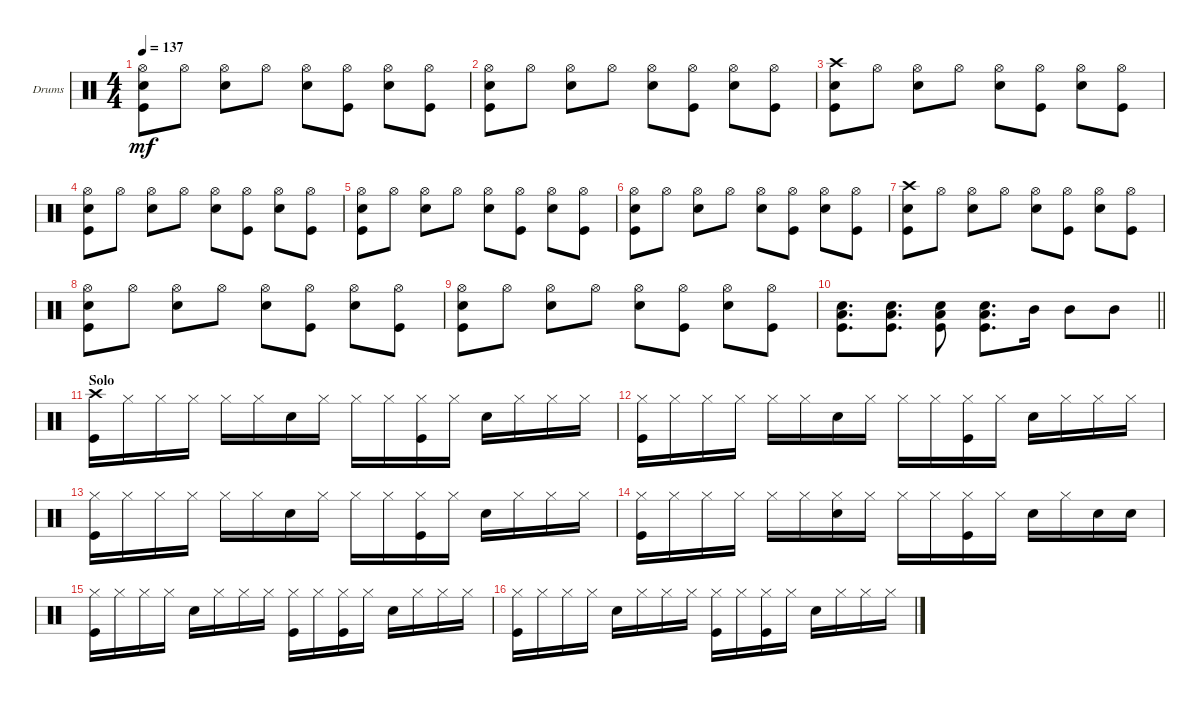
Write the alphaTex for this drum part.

\bracketExtendMode groupsimilarinstruments
\firstSystemTrackNameOrientation horizontal
\otherSystemsTrackNameOrientation horizontal
\track ("Fabrizio" "Drums") {instrument percussion}
\staff {score}
\articulation defaults
\ts (4 4)
\tempo 137
\clef neutral
\scale
0.333333
\ks c
("Hi-Hat (open)" "Snare (hit) 2" "Kick (hit)").8{dy mf} "Hi-Hat (open)".8 ("Hi-Hat (open)" "Snare (hit) 2").8 "Hi-Hat (open)".8 ("Hi-Hat (open)" "Snare (hit) 2").8 ("Hi-Hat (open)" "Kick (hit)").8 ("Hi-Hat (open)" "Snare (hit) 2").8 ("Hi-Hat (open)" "Kick (hit)").8 |
\scale
0.333333 ("Hi-Hat (open)" "Snare (hit) 2" "Kick (hit)").8 "Hi-Hat (open)".8 ("Hi-Hat (open)" "Snare (hit) 2").8 "Hi-Hat (open)".8 ("Hi-Hat (open)" "Snare (hit) 2").8 ("Hi-Hat (open)" "Kick (hit)").8 ("Hi-Hat (open)" "Snare (hit) 2").8 ("Hi-Hat (open)" "Kick (hit)").8 |
\scale
0.333333 ("Crash high (hit)" "Kick (hit)" "Snare (hit) 2").8 "Hi-Hat (open)".8 ("Hi-Hat (open)" "Snare (hit) 2").8 "Hi-Hat (open)".8 ("Hi-Hat (open)" "Snare (hit) 2").8 ("Hi-Hat (open)" "Kick (hit)").8 ("Hi-Hat (open)" "Snare (hit) 2").8 ("Hi-Hat (open)" "Kick (hit)").8 |
\scale
0.333333 ("Hi-Hat (open)" "Snare (hit) 2" "Kick (hit)").8 "Hi-Hat (open)".8 ("Hi-Hat (open)" "Snare (hit) 2").8 "Hi-Hat (open)".8 ("Hi-Hat (open)" "Snare (hit) 2").8 ("Hi-Hat (open)" "Kick (hit)").8 ("Hi-Hat (open)" "Snare (hit) 2").8 ("Hi-Hat (open)" "Kick (hit)").8 |
\scale
0.333333 ("Hi-Hat (open)" "Snare (hit) 2" "Kick (hit)").8 "Hi-Hat (open)".8 ("Hi-Hat (open)" "Snare (hit) 2").8 "Hi-Hat (open)".8 ("Hi-Hat (open)" "Snare (hit) 2").8 ("Hi-Hat (open)" "Kick (hit)").8 ("Hi-Hat (open)" "Snare (hit) 2").8 ("Hi-Hat (open)" "Kick (hit)").8 |
\scale
0.333333 ("Hi-Hat (open)" "Snare (hit) 2" "Kick (hit)").8 "Hi-Hat (open)".8 ("Hi-Hat (open)" "Snare (hit) 2").8 "Hi-Hat (open)".8 ("Hi-Hat (open)" "Snare (hit) 2").8 ("Hi-Hat (open)" "Kick (hit)").8 ("Hi-Hat (open)" "Snare (hit) 2").8 ("Hi-Hat (open)" "Kick (hit)").8 |
\scale
0.333333 ("Crash high (hit)" "Kick (hit)" "Snare (hit) 2").8 "Hi-Hat (open)".8 ("Hi-Hat (open)" "Snare (hit) 2").8 "Hi-Hat (open)".8 ("Hi-Hat (open)" "Snare (hit) 2").8 ("Hi-Hat (open)" "Kick (hit)").8 ("Hi-Hat (open)" "Snare (hit) 2").8 ("Hi-Hat (open)" "Kick (hit)").8 |
\scale
0.333333 ("Hi-Hat (open)" "Snare (hit) 2" "Kick (hit)").8 "Hi-Hat (open)".8 ("Hi-Hat (open)" "Snare (hit) 2").8 "Hi-Hat (open)".8 ("Hi-Hat (open)" "Snare (hit) 2").8 ("Hi-Hat (open)" "Kick (hit)").8 ("Hi-Hat (open)" "Snare (hit) 2").8 ("Hi-Hat (open)" "Kick (hit)").8 |
\scale
0.333333 ("Hi-Hat (open)" "Snare (hit) 2" "Kick (hit)").8 "Hi-Hat (open)".8 ("Hi-Hat (open)" "Snare (hit) 2").8 "Hi-Hat (open)".8 ("Hi-Hat (open)" "Snare (hit) 2").8 ("Hi-Hat (open)" "Kick (hit)").8 ("Hi-Hat (open)" "Snare (hit) 2").8 ("Hi-Hat (open)" "Kick (hit)").8 |
\scale
0.333333
\barLineRight lightlight
("Kick (hit)" "Low Tom (hit)" "Snare (hit) 2").8{d} ("Kick (hit)" "Low Tom (hit)" "Snare (hit) 2").8{d} ("Kick (hit)" "Low Tom (hit)" "Snare (hit) 2").8 ("Kick (hit)" "Low Tom (hit)" "Snare (hit) 2").8{d} "Mid Tom (hit)".16 "Mid Tom (hit)".8 "Mid Tom (hit)".8 |
\section ("" "Solo")
\scale
0.333333 ("Kick (hit)" "Crash high (hit)").16 "Hi-Hat (closed)".16 "Hi-Hat (closed)".16 "Hi-Hat (closed)".16 "Hi-Hat (closed)".16 "Hi-Hat (closed)".16 "Snare (hit) 2".16 "Hi-Hat (closed)".16 "Hi-Hat (closed)".16 "Hi-Hat (closed)".16 ("Hi-Hat (closed)" "Kick (hit)").16 "Hi-Hat (closed)".16 "Snare (hit) 2".16 "Hi-Hat (closed)".16 "Hi-Hat (closed)".16 "Hi-Hat (closed)".16 |
\scale
0.333333 ("Hi-Hat (closed)" "Kick (hit)").16 "Hi-Hat (closed)".16 "Hi-Hat (closed)".16 "Hi-Hat (closed)".16 "Hi-Hat (closed)".16 "Hi-Hat (closed)".16 "Snare (hit) 2".16 "Hi-Hat (closed)".16 "Hi-Hat (closed)".16 "Hi-Hat (closed)".16 ("Hi-Hat (closed)" "Kick (hit)").16 "Hi-Hat (closed)".16 "Snare (hit) 2".16 "Hi-Hat (closed)".16 "Hi-Hat (closed)".16 "Hi-Hat (closed)".16 |
\scale
0.333333 ("Hi-Hat (closed)" "Kick (hit)").16 "Hi-Hat (closed)".16 "Hi-Hat (closed)".16 "Hi-Hat (closed)".16 "Hi-Hat (closed)".16 "Hi-Hat (closed)".16 "Snare (hit) 2".16 "Hi-Hat (closed)".16 "Hi-Hat (closed)".16 "Hi-Hat (closed)".16 ("Hi-Hat (closed)" "Kick (hit)").16 "Hi-Hat (closed)".16 "Snare (hit) 2".16 "Hi-Hat (closed)".16 "Hi-Hat (closed)".16 "Hi-Hat (closed)".16 |
\scale
0.333333 ("Hi-Hat (closed)" "Kick (hit)").16 "Hi-Hat (closed)".16 "Hi-Hat (closed)".16 "Hi-Hat (closed)".16 "Hi-Hat (closed)".16 "Hi-Hat (closed)".16 ("Hi-Hat (closed)" "Snare (hit) 2").16 "Hi-Hat (closed)".16 "Hi-Hat (closed)".16 "Hi-Hat (closed)".16 ("Hi-Hat (closed)" "Kick (hit)").16 "Hi-Hat (closed)".16 "Snare (hit) 2".16 "Hi-Hat (closed)".16 "Snare (hit) 2".16 "Snare (hit) 2".16 |
\scale
0.333333 ("Hi-Hat (closed)" "Kick (hit)").16 "Hi-Hat (closed)".16 "Hi-Hat (closed)".16 "Hi-Hat (closed)".16 "Snare (hit) 2".16 "Hi-Hat (closed)".16 "Hi-Hat (closed)".16 "Hi-Hat (closed)".16 ("Hi-Hat (closed)" "Kick (hit)").16 "Hi-Hat (closed)".16 ("Hi-Hat (closed)" "Kick (hit)").16 "Hi-Hat (closed)".16 "Snare (hit) 2".16 "Hi-Hat (closed)".16 "Hi-Hat (closed)".16 "Hi-Hat (closed)".16 |
\scale
0.333333 ("Hi-Hat (closed)" "Kick (hit)").16 "Hi-Hat (closed)".16 "Hi-Hat (closed)".16 "Hi-Hat (closed)".16 "Snare (hit) 2".16 "Hi-Hat (closed)".16 "Hi-Hat (closed)".16 "Hi-Hat (closed)".16 ("Hi-Hat (closed)" "Kick (hit)").16 "Hi-Hat (closed)".16 ("Hi-Hat (closed)" "Kick (hit)").16 "Hi-Hat (closed)".16 "Snare (hit) 2".16 "Hi-Hat (closed)".16 "Hi-Hat (closed)".16 "Hi-Hat (closed)".16
